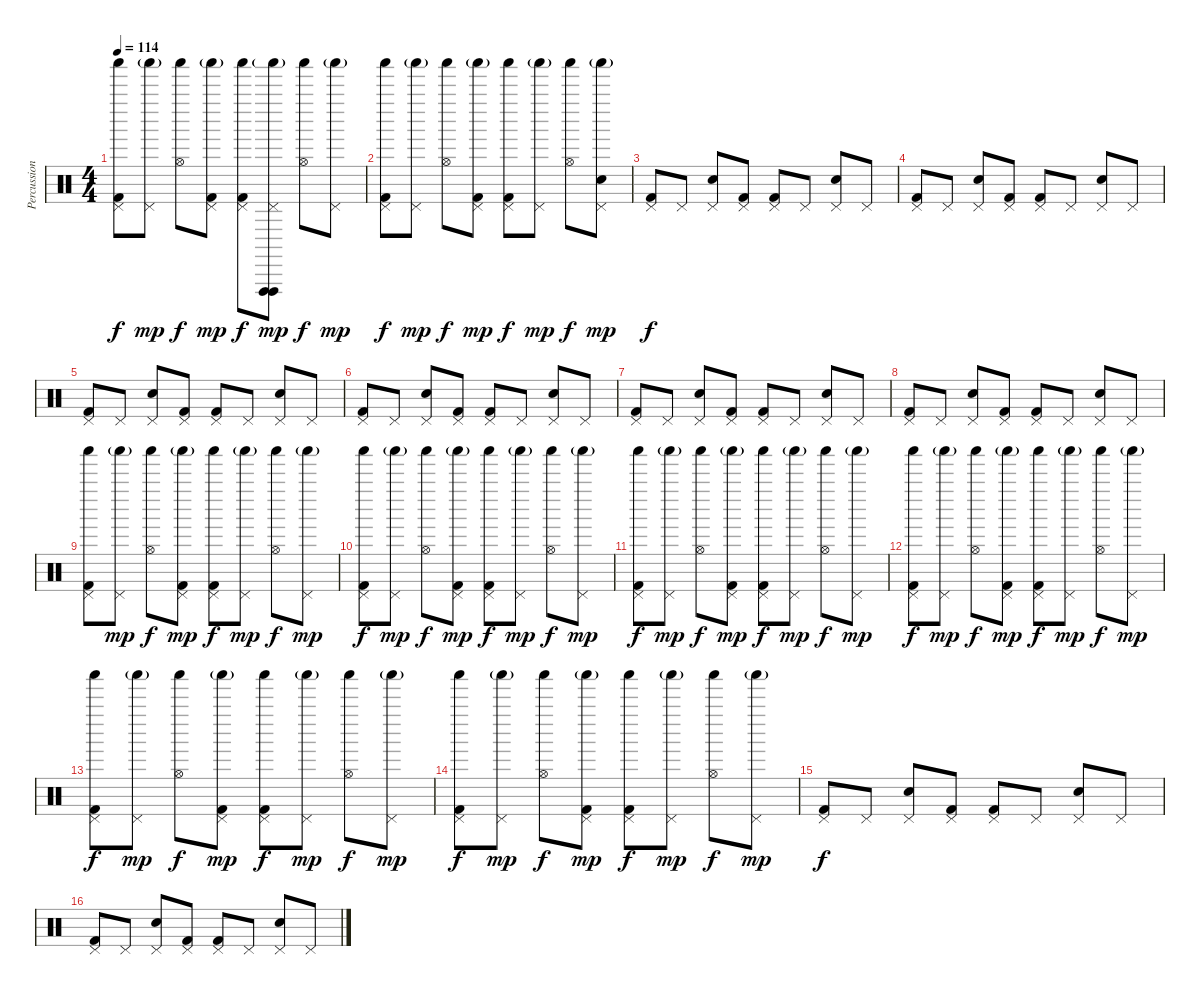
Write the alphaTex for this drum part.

\track ("Percussion" "Percussion") {instrument percussion}
\staff {score}
\articulation defaults
\ts (4 4)
\tempo 114
\clef neutral
\ks c
("Shaker (hit)" "Pedal Hi-Hat (hit)" "Kick (hit) 2").8{dy f} ("Shaker (hit)"{g} "Pedal Hi-Hat (hit)").8{dy mp} ("Shaker (hit)" "Hi-Hat (open)").8{dy f} ("Shaker (hit)"{g} "Pedal Hi-Hat (hit)" "Kick (hit) 2").8{dy mp} ("Shaker (hit)" "Pedal Hi-Hat (hit)" "Kick (hit) 2").8{dy f} ("Shaker (hit)"{g} "Pedal Hi-Hat (hit)" "Vibraslap (hit)" "Vibraslap (hit)").8{dy mp} ("Shaker (hit)" "Hi-Hat (open)").8{dy f} ("Shaker (hit)"{g} "Pedal Hi-Hat (hit)").8{dy mp} |
("Shaker (hit)" "Pedal Hi-Hat (hit)" "Kick (hit) 2").8{dy f} ("Shaker (hit)"{g} "Pedal Hi-Hat (hit)").8{dy mp} ("Shaker (hit)" "Hi-Hat (open)").8{dy f} ("Shaker (hit)"{g} "Pedal Hi-Hat (hit)" "Kick (hit) 2").8{dy mp} ("Shaker (hit)" "Pedal Hi-Hat (hit)" "Kick (hit) 2").8{dy f} ("Shaker (hit)"{g} "Pedal Hi-Hat (hit)").8{dy mp} ("Shaker (hit)" "Hi-Hat (open)").8{dy f} ("Shaker (hit)"{g} "Pedal Hi-Hat (hit)" "Electric Snare (hit)").8{dy mp} |
("Pedal Hi-Hat (hit)" "Kick (hit) 2").8{dy f} "Pedal Hi-Hat (hit)".8 ("Pedal Hi-Hat (hit)" "Electric Snare (hit)").8 ("Pedal Hi-Hat (hit)" "Kick (hit) 2").8 ("Pedal Hi-Hat (hit)" "Kick (hit) 2").8 "Pedal Hi-Hat (hit)".8 ("Pedal Hi-Hat (hit)" "Electric Snare (hit)").8 "Pedal Hi-Hat (hit)".8 |
("Pedal Hi-Hat (hit)" "Kick (hit) 2").8 "Pedal Hi-Hat (hit)".8 ("Pedal Hi-Hat (hit)" "Electric Snare (hit)").8 ("Pedal Hi-Hat (hit)" "Kick (hit) 2").8 ("Pedal Hi-Hat (hit)" "Kick (hit) 2").8 "Pedal Hi-Hat (hit)".8 ("Pedal Hi-Hat (hit)" "Electric Snare (hit)").8 "Pedal Hi-Hat (hit)".8 |
("Pedal Hi-Hat (hit)" "Kick (hit) 2").8 "Pedal Hi-Hat (hit)".8 ("Pedal Hi-Hat (hit)" "Electric Snare (hit)").8 ("Pedal Hi-Hat (hit)" "Kick (hit) 2").8 ("Pedal Hi-Hat (hit)" "Kick (hit) 2").8 "Pedal Hi-Hat (hit)".8 ("Pedal Hi-Hat (hit)" "Electric Snare (hit)").8 "Pedal Hi-Hat (hit)".8 |
("Pedal Hi-Hat (hit)" "Kick (hit) 2").8 "Pedal Hi-Hat (hit)".8 ("Pedal Hi-Hat (hit)" "Electric Snare (hit)").8 ("Pedal Hi-Hat (hit)" "Kick (hit) 2").8 ("Pedal Hi-Hat (hit)" "Kick (hit) 2").8 "Pedal Hi-Hat (hit)".8 ("Pedal Hi-Hat (hit)" "Electric Snare (hit)").8 "Pedal Hi-Hat (hit)".8 |
("Pedal Hi-Hat (hit)" "Kick (hit) 2").8 "Pedal Hi-Hat (hit)".8 ("Pedal Hi-Hat (hit)" "Electric Snare (hit)").8 ("Pedal Hi-Hat (hit)" "Kick (hit) 2").8 ("Pedal Hi-Hat (hit)" "Kick (hit) 2").8 "Pedal Hi-Hat (hit)".8 ("Pedal Hi-Hat (hit)" "Electric Snare (hit)").8 "Pedal Hi-Hat (hit)".8 |
("Pedal Hi-Hat (hit)" "Kick (hit) 2").8 "Pedal Hi-Hat (hit)".8 ("Pedal Hi-Hat (hit)" "Electric Snare (hit)").8 ("Pedal Hi-Hat (hit)" "Kick (hit) 2").8 ("Pedal Hi-Hat (hit)" "Kick (hit) 2").8 "Pedal Hi-Hat (hit)".8 ("Pedal Hi-Hat (hit)" "Electric Snare (hit)").8 "Pedal Hi-Hat (hit)".8 |
("Shaker (hit)" "Pedal Hi-Hat (hit)" "Kick (hit) 2").8 ("Shaker (hit)"{g} "Pedal Hi-Hat (hit)").8{dy mp} ("Shaker (hit)" "Hi-Hat (open)").8{dy f} ("Shaker (hit)"{g} "Pedal Hi-Hat (hit)" "Kick (hit) 2").8{dy mp} ("Shaker (hit)" "Pedal Hi-Hat (hit)" "Kick (hit) 2").8{dy f} ("Shaker (hit)"{g} "Pedal Hi-Hat (hit)").8{dy mp} ("Shaker (hit)" "Hi-Hat (open)").8{dy f} ("Shaker (hit)"{g} "Pedal Hi-Hat (hit)").8{dy mp} |
("Shaker (hit)" "Pedal Hi-Hat (hit)" "Kick (hit) 2").8{dy f} ("Shaker (hit)"{g} "Pedal Hi-Hat (hit)").8{dy mp} ("Shaker (hit)" "Hi-Hat (open)").8{dy f} ("Shaker (hit)"{g} "Pedal Hi-Hat (hit)" "Kick (hit) 2").8{dy mp} ("Shaker (hit)" "Pedal Hi-Hat (hit)" "Kick (hit) 2").8{dy f} ("Shaker (hit)"{g} "Pedal Hi-Hat (hit)").8{dy mp} ("Shaker (hit)" "Hi-Hat (open)").8{dy f} ("Shaker (hit)"{g} "Pedal Hi-Hat (hit)").8{dy mp} |
("Shaker (hit)" "Pedal Hi-Hat (hit)" "Kick (hit) 2").8{dy f} ("Shaker (hit)"{g} "Pedal Hi-Hat (hit)").8{dy mp} ("Shaker (hit)" "Hi-Hat (open)").8{dy f} ("Shaker (hit)"{g} "Pedal Hi-Hat (hit)" "Kick (hit) 2").8{dy mp} ("Shaker (hit)" "Pedal Hi-Hat (hit)" "Kick (hit) 2").8{dy f} ("Shaker (hit)"{g} "Pedal Hi-Hat (hit)").8{dy mp} ("Shaker (hit)" "Hi-Hat (open)").8{dy f} ("Shaker (hit)"{g} "Pedal Hi-Hat (hit)").8{dy mp} |
("Shaker (hit)" "Pedal Hi-Hat (hit)" "Kick (hit) 2").8{dy f} ("Shaker (hit)"{g} "Pedal Hi-Hat (hit)").8{dy mp} ("Shaker (hit)" "Hi-Hat (open)").8{dy f} ("Shaker (hit)"{g} "Pedal Hi-Hat (hit)" "Kick (hit) 2").8{dy mp} ("Shaker (hit)" "Pedal Hi-Hat (hit)" "Kick (hit) 2").8{dy f} ("Shaker (hit)"{g} "Pedal Hi-Hat (hit)").8{dy mp} ("Shaker (hit)" "Hi-Hat (open)").8{dy f} ("Shaker (hit)"{g} "Pedal Hi-Hat (hit)").8{dy mp} |
("Shaker (hit)" "Pedal Hi-Hat (hit)" "Kick (hit) 2").8{dy f} ("Shaker (hit)"{g} "Pedal Hi-Hat (hit)").8{dy mp} ("Shaker (hit)" "Hi-Hat (open)").8{dy f} ("Shaker (hit)"{g} "Pedal Hi-Hat (hit)" "Kick (hit) 2").8{dy mp} ("Shaker (hit)" "Pedal Hi-Hat (hit)" "Kick (hit) 2").8{dy f} ("Shaker (hit)"{g} "Pedal Hi-Hat (hit)").8{dy mp} ("Shaker (hit)" "Hi-Hat (open)").8{dy f} ("Shaker (hit)"{g} "Pedal Hi-Hat (hit)").8{dy mp} |
("Shaker (hit)" "Pedal Hi-Hat (hit)" "Kick (hit) 2").8{dy f} ("Shaker (hit)"{g} "Pedal Hi-Hat (hit)").8{dy mp} ("Shaker (hit)" "Hi-Hat (open)").8{dy f} ("Shaker (hit)"{g} "Pedal Hi-Hat (hit)" "Kick (hit) 2").8{dy mp} ("Shaker (hit)" "Pedal Hi-Hat (hit)" "Kick (hit) 2").8{dy f} ("Shaker (hit)"{g} "Pedal Hi-Hat (hit)").8{dy mp} ("Shaker (hit)" "Hi-Hat (open)").8{dy f} ("Shaker (hit)"{g} "Pedal Hi-Hat (hit)").8{dy mp} |
("Pedal Hi-Hat (hit)" "Kick (hit) 2").8{dy f} "Pedal Hi-Hat (hit)".8 ("Pedal Hi-Hat (hit)" "Electric Snare (hit)").8 ("Pedal Hi-Hat (hit)" "Kick (hit) 2").8 ("Pedal Hi-Hat (hit)" "Kick (hit) 2").8 "Pedal Hi-Hat (hit)".8 ("Pedal Hi-Hat (hit)" "Electric Snare (hit)").8 "Pedal Hi-Hat (hit)".8 |
("Pedal Hi-Hat (hit)" "Kick (hit) 2").8 "Pedal Hi-Hat (hit)".8 ("Pedal Hi-Hat (hit)" "Electric Snare (hit)").8 ("Pedal Hi-Hat (hit)" "Kick (hit) 2").8 ("Pedal Hi-Hat (hit)" "Kick (hit) 2").8 "Pedal Hi-Hat (hit)".8 ("Pedal Hi-Hat (hit)" "Electric Snare (hit)").8 "Pedal Hi-Hat (hit)".8
